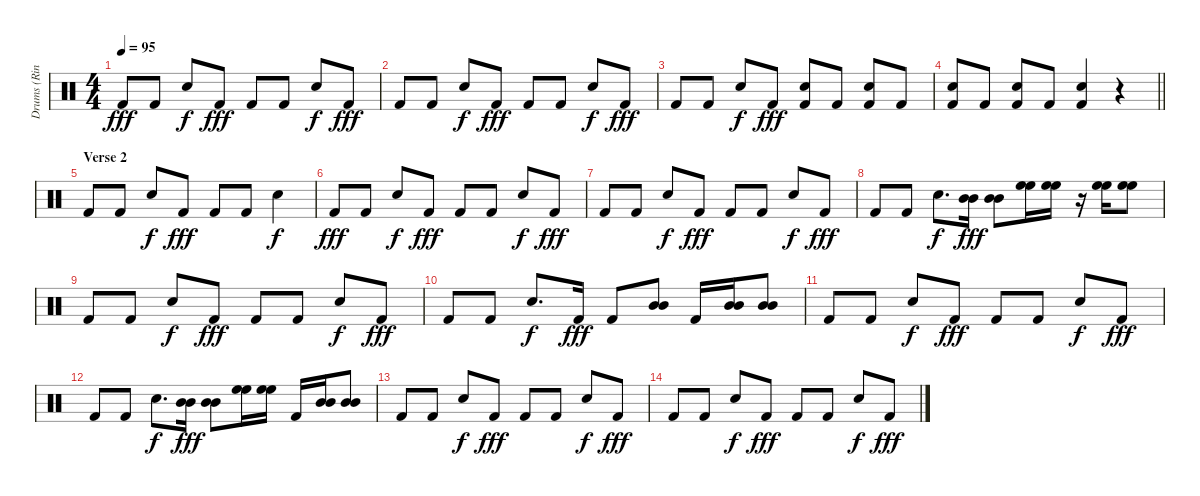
\track ("Drums (Ringo Starr)" "Drums (Rin") {instrument percussion}
\staff {score}
\articulation defaults
\ts (4 4)
\tempo 95
\clef neutral
\ks c "Kick (hit) 2".8{dy fff} "Kick (hit) 2".8 "Snare (hit) 2".8{dy f} "Kick (hit) 2".8{dy fff} "Kick (hit) 2".8 "Kick (hit) 2".8 "Snare (hit) 2".8{dy f} "Kick (hit) 2".8{dy fff}
|
"Kick (hit) 2".8 "Kick (hit) 2".8 "Snare (hit) 2".8{dy f} "Kick (hit) 2".8{dy fff} "Kick (hit) 2".8 "Kick (hit) 2".8 "Snare (hit) 2".8{dy f} "Kick (hit) 2".8{dy fff} |
"Kick (hit) 2".8 "Kick (hit) 2".8 "Snare (hit) 2".8{dy f} "Kick (hit) 2".8{dy fff} ("Snare (hit) 2" "Kick (hit) 2").8 "Kick (hit) 2".8 ("Snare (hit) 2" "Kick (hit) 2").8 "Kick (hit) 2".8 |
\barLineRight lightlight
("Snare (hit) 2" "Kick (hit) 2").8 "Kick (hit) 2".8 ("Snare (hit) 2" "Kick (hit) 2").8 "Kick (hit) 2".8 ("Snare (hit) 2" "Kick (hit) 2").4 r.4 |
\section ("" "Verse 2")
"Kick (hit) 2".8 "Kick (hit) 2".8 "Snare (hit) 2".8{dy f} "Kick (hit) 2".8{dy fff} "Kick (hit) 2".8 "Kick (hit) 2".8 "Snare (hit) 2".4{dy f} |
"Kick (hit) 2".8{dy fff} "Kick (hit) 2".8 "Snare (hit) 2".8{dy f} "Kick (hit) 2".8{dy fff} "Kick (hit) 2".8 "Kick (hit) 2".8 "Snare (hit) 2".8{dy f} "Kick (hit) 2".8{dy fff} |
"Kick (hit) 2".8 "Kick (hit) 2".8 "Snare (hit) 2".8{dy f} "Kick (hit) 2".8{dy fff} "Kick (hit) 2".8 "Kick (hit) 2".8 "Snare (hit) 2".8{dy f} "Kick (hit) 2".8{dy fff} |
"Kick (hit) 2".8 "Kick (hit) 2".8 "Snare (hit) 2".8{d dy f} ("Mid Tom (hit)" "Mid Tom (hit)").16{dy fff} ("Mid Tom (hit)" "Mid Tom (hit)").8 ("High Floor Tom (hit)" "High Floor Tom (hit)").16 ("High Floor Tom (hit)" "High Floor Tom (hit)").16 r.16 ("High Floor Tom (hit)" "High Floor Tom (hit)").16 ("High Floor Tom (hit)" "High Floor Tom (hit)").8 |
"Kick (hit) 2".8 "Kick (hit) 2".8 "Snare (hit) 2".8{dy f} "Kick (hit) 2".8{dy fff} "Kick (hit) 2".8 "Kick (hit) 2".8 "Snare (hit) 2".8{dy f} "Kick (hit) 2".8{dy fff} |
"Kick (hit) 2".8 "Kick (hit) 2".8 "Snare (hit) 2".8{d dy f} "Kick (hit) 2".16{dy fff} "Kick (hit) 2".8 ("Mid Tom (hit)" "Mid Tom (hit)").8 "Kick (hit) 2".16 ("Mid Tom (hit)" "Mid Tom (hit)").16 ("Mid Tom (hit)" "Mid Tom (hit)").8 |
"Kick (hit) 2".8 "Kick (hit) 2".8 "Snare (hit) 2".8{dy f} "Kick (hit) 2".8{dy fff} "Kick (hit) 2".8 "Kick (hit) 2".8 "Snare (hit) 2".8{dy f} "Kick (hit) 2".8{dy fff} |
"Kick (hit) 2".8 "Kick (hit) 2".8 "Snare (hit) 2".8{d dy f} ("Mid Tom (hit)" "Mid Tom (hit)").16{dy fff} ("Mid Tom (hit)" "Mid Tom (hit)").8 ("High Floor Tom (hit)" "High Floor Tom (hit)").16 ("High Floor Tom (hit)" "High Floor Tom (hit)").16 "Kick (hit) 2".16 ("Mid Tom (hit)" "Mid Tom (hit)").16 ("Mid Tom (hit)" "Mid Tom (hit)").8 |
"Kick (hit) 2".8 "Kick (hit) 2".8 "Snare (hit) 2".8{dy f} "Kick (hit) 2".8{dy fff} "Kick (hit) 2".8 "Kick (hit) 2".8 "Snare (hit) 2".8{dy f} "Kick (hit) 2".8{dy fff} |
"Kick (hit) 2".8 "Kick (hit) 2".8 "Snare (hit) 2".8{dy f} "Kick (hit) 2".8{dy fff} "Kick (hit) 2".8 "Kick (hit) 2".8 "Snare (hit) 2".8{dy f} "Kick (hit) 2".8{dy fff}
